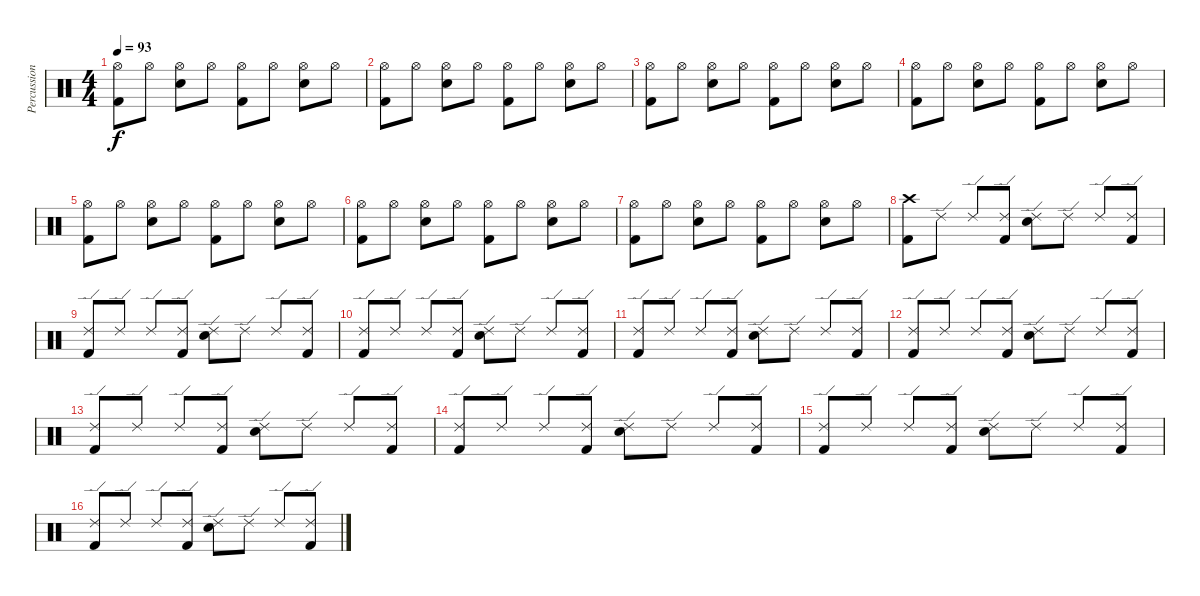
\track ("Percussion" "Percussion") {instrument percussion}
\staff {score}
\articulation defaults
\ts (4 4)
\tempo 93
\clef neutral
\ks c
("Hi-Hat (open)" "Kick (hit) 2").8{dy f} "Hi-Hat (open)".8 ("Hi-Hat (open)" "Snare (hit) 2").8 "Hi-Hat (open)".8 ("Hi-Hat (open)" "Kick (hit) 2").8 "Hi-Hat (open)".8 ("Hi-Hat (open)" "Snare (hit) 2").8 "Hi-Hat (open)".8 |
("Hi-Hat (open)" "Kick (hit) 2").8 "Hi-Hat (open)".8 ("Hi-Hat (open)" "Snare (hit) 2").8 "Hi-Hat (open)".8 ("Hi-Hat (open)" "Kick (hit) 2").8 "Hi-Hat (open)".8 ("Hi-Hat (open)" "Snare (hit) 2").8 "Hi-Hat (open)".8 |
("Hi-Hat (open)" "Kick (hit) 2").8 "Hi-Hat (open)".8 ("Hi-Hat (open)" "Snare (hit) 2").8 "Hi-Hat (open)".8 ("Hi-Hat (open)" "Kick (hit) 2").8 "Hi-Hat (open)".8 ("Hi-Hat (open)" "Snare (hit) 2").8 "Hi-Hat (open)".8 |
("Hi-Hat (open)" "Kick (hit) 2").8 "Hi-Hat (open)".8 ("Hi-Hat (open)" "Snare (hit) 2").8 "Hi-Hat (open)".8 ("Hi-Hat (open)" "Kick (hit) 2").8 "Hi-Hat (open)".8 ("Hi-Hat (open)" "Snare (hit) 2").8 "Hi-Hat (open)".8 |
("Hi-Hat (open)" "Kick (hit) 2").8 "Hi-Hat (open)".8 ("Hi-Hat (open)" "Snare (hit) 2").8 "Hi-Hat (open)".8 ("Hi-Hat (open)" "Kick (hit) 2").8 "Hi-Hat (open)".8 ("Hi-Hat (open)" "Snare (hit) 2").8 "Hi-Hat (open)".8 |
("Hi-Hat (open)" "Kick (hit) 2").8 "Hi-Hat (open)".8 ("Hi-Hat (open)" "Snare (hit) 2").8 "Hi-Hat (open)".8 ("Hi-Hat (open)" "Kick (hit) 2").8 "Hi-Hat (open)".8 ("Hi-Hat (open)" "Snare (hit) 2").8 "Hi-Hat (open)".8 |
("Hi-Hat (open)" "Kick (hit) 2").8 "Hi-Hat (open)".8 ("Hi-Hat (open)" "Snare (hit) 2").8 "Hi-Hat (open)".8 ("Hi-Hat (open)" "Kick (hit) 2").8 "Hi-Hat (open)".8 ("Hi-Hat (open)" "Snare (hit) 2").8 "Hi-Hat (open)".8 |
("Crash high (hit)" "Kick (hit) 2").8 "Ride (edge) 2".8 "Ride (edge) 2".8 ("Ride (edge) 2" "Kick (hit) 2").8 ("Ride (edge) 2" "Snare (hit) 2").8 "Ride (edge) 2".8 "Ride (edge) 2".8 ("Ride (edge) 2" "Kick (hit) 2").8 |
("Ride (edge) 2" "Kick (hit) 2").8 "Ride (edge) 2".8 "Ride (edge) 2".8 ("Ride (edge) 2" "Kick (hit) 2").8 ("Ride (edge) 2" "Snare (hit) 2").8 "Ride (edge) 2".8 "Ride (edge) 2".8 ("Ride (edge) 2" "Kick (hit) 2").8 |
("Ride (edge) 2" "Kick (hit) 2").8 "Ride (edge) 2".8 "Ride (edge) 2".8 ("Ride (edge) 2" "Kick (hit) 2").8 ("Ride (edge) 2" "Snare (hit) 2").8 "Ride (edge) 2".8 "Ride (edge) 2".8 ("Ride (edge) 2" "Kick (hit) 2").8 |
("Ride (edge) 2" "Kick (hit) 2").8 "Ride (edge) 2".8 "Ride (edge) 2".8 ("Ride (edge) 2" "Kick (hit) 2").8 ("Ride (edge) 2" "Snare (hit) 2").8 "Ride (edge) 2".8 "Ride (edge) 2".8 ("Ride (edge) 2" "Kick (hit) 2").8 |
("Ride (edge) 2" "Kick (hit) 2").8 "Ride (edge) 2".8 "Ride (edge) 2".8 ("Ride (edge) 2" "Kick (hit) 2").8 ("Ride (edge) 2" "Snare (hit) 2").8 "Ride (edge) 2".8 "Ride (edge) 2".8 ("Ride (edge) 2" "Kick (hit) 2").8 |
("Ride (edge) 2" "Kick (hit) 2").8 "Ride (edge) 2".8 "Ride (edge) 2".8 ("Ride (edge) 2" "Kick (hit) 2").8 ("Ride (edge) 2" "Snare (hit) 2").8 "Ride (edge) 2".8 "Ride (edge) 2".8 ("Ride (edge) 2" "Kick (hit) 2").8 |
("Ride (edge) 2" "Kick (hit) 2").8 "Ride (edge) 2".8 "Ride (edge) 2".8 ("Ride (edge) 2" "Kick (hit) 2").8 ("Ride (edge) 2" "Snare (hit) 2").8 "Ride (edge) 2".8 "Ride (edge) 2".8 ("Ride (edge) 2" "Kick (hit) 2").8 |
("Ride (edge) 2" "Kick (hit) 2").8 "Ride (edge) 2".8 "Ride (edge) 2".8 ("Ride (edge) 2" "Kick (hit) 2").8 ("Ride (edge) 2" "Snare (hit) 2").8 "Ride (edge) 2".8 "Ride (edge) 2".8 ("Ride (edge) 2" "Kick (hit) 2").8 |
("Ride (edge) 2" "Kick (hit) 2").8 "Ride (edge) 2".8 "Ride (edge) 2".8 ("Ride (edge) 2" "Kick (hit) 2").8 ("Ride (edge) 2" "Snare (hit) 2").8 "Ride (edge) 2".8 "Ride (edge) 2".8 ("Ride (edge) 2" "Kick (hit) 2").8
